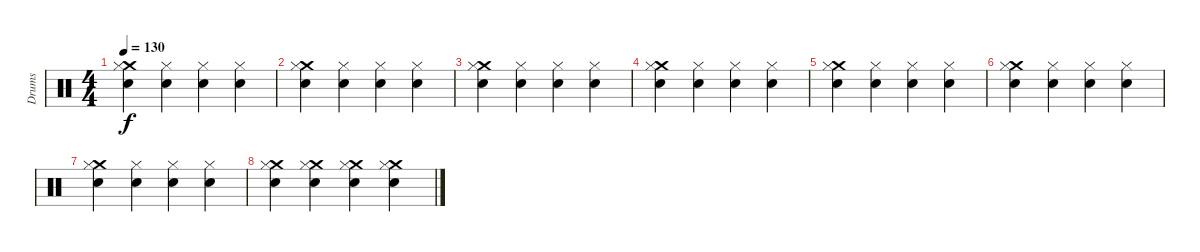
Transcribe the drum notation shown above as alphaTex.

\track ("Drums" "Drums") {instrument percussion}
\staff {score}
\articulation defaults
\ts (4 4)
\tempo 130
\clef neutral
\ks c
("Crash medium (hit)" "Hi-Hat (closed)" "Hand Clap (hit)").4{dy f} ("Hi-Hat (closed)" "Hand Clap (hit)").4 ("Hi-Hat (closed)" "Hand Clap (hit)").4 ("Hi-Hat (closed)" "Hand Clap (hit)").4 |
("Crash medium (hit)" "Hi-Hat (closed)" "Hand Clap (hit)").4 ("Hi-Hat (closed)" "Hand Clap (hit)").4 ("Hi-Hat (closed)" "Hand Clap (hit)").4 ("Hi-Hat (closed)" "Hand Clap (hit)").4 |
("Crash medium (hit)" "Hi-Hat (closed)" "Hand Clap (hit)").4 ("Hi-Hat (closed)" "Hand Clap (hit)").4 ("Hi-Hat (closed)" "Hand Clap (hit)").4 ("Hi-Hat (closed)" "Hand Clap (hit)").4 |
("Crash medium (hit)" "Hi-Hat (closed)" "Hand Clap (hit)").4 ("Hi-Hat (closed)" "Hand Clap (hit)").4 ("Hi-Hat (closed)" "Hand Clap (hit)").4 ("Hi-Hat (closed)" "Hand Clap (hit)").4 |
("Crash medium (hit)" "Hi-Hat (closed)" "Hand Clap (hit)").4 ("Hi-Hat (closed)" "Hand Clap (hit)").4 ("Hi-Hat (closed)" "Hand Clap (hit)").4 ("Hi-Hat (closed)" "Hand Clap (hit)").4 |
("Crash medium (hit)" "Hi-Hat (closed)" "Hand Clap (hit)").4 ("Hi-Hat (closed)" "Hand Clap (hit)").4 ("Hi-Hat (closed)" "Hand Clap (hit)").4 ("Hi-Hat (closed)" "Hand Clap (hit)").4 |
("Crash medium (hit)" "Hi-Hat (closed)" "Hand Clap (hit)").4 ("Hi-Hat (closed)" "Hand Clap (hit)").4 ("Hi-Hat (closed)" "Hand Clap (hit)").4 ("Hi-Hat (closed)" "Hand Clap (hit)").4 |
("Crash medium (hit)" "Hi-Hat (closed)" "Hand Clap (hit)").4 ("Crash medium (hit)" "Hi-Hat (closed)" "Hand Clap (hit)").4 ("Crash medium (hit)" "Hi-Hat (closed)" "Hand Clap (hit)").4 ("Crash medium (hit)" "Hi-Hat (closed)" "Hand Clap (hit)").4
